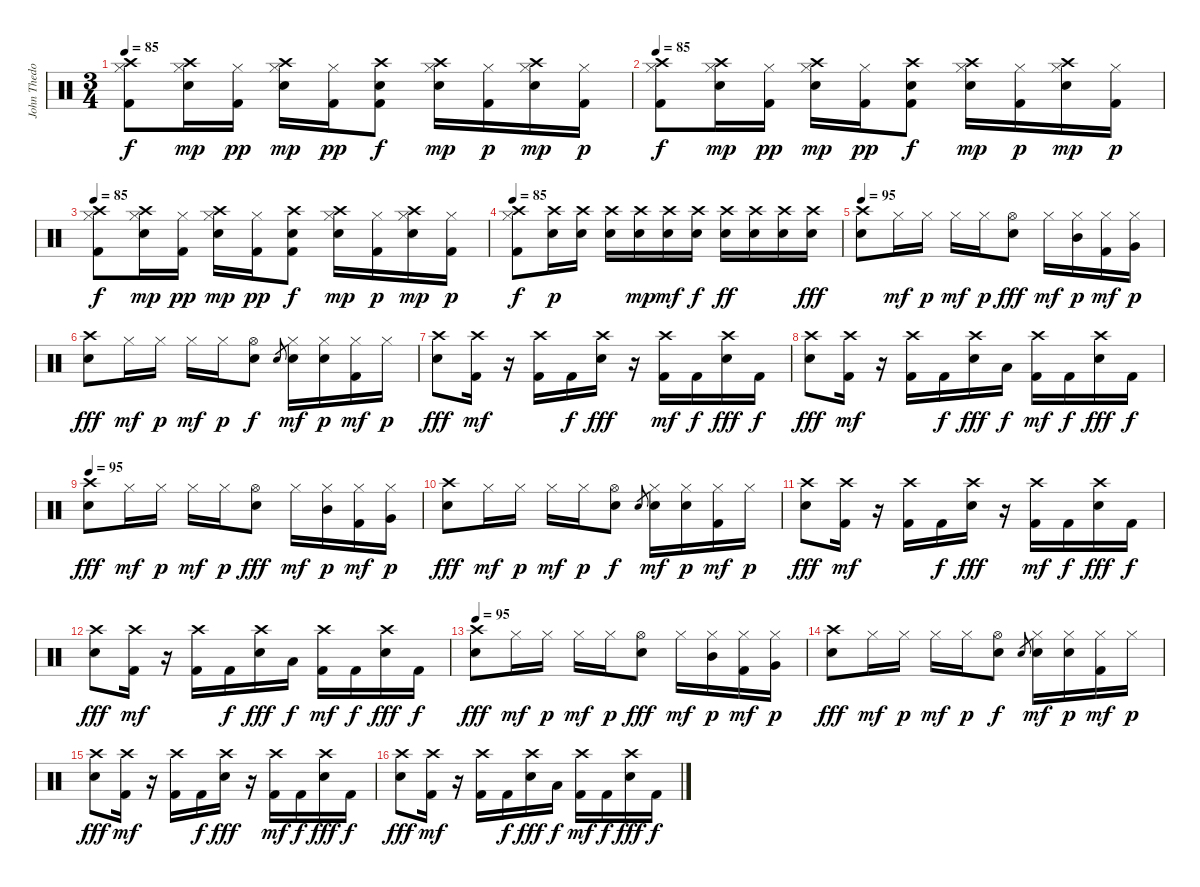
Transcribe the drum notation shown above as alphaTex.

\track ("John Thedore" "John Thedo") {instrument percussion}
\staff {score}
\articulation defaults
\ts (3 4)
\tempo 85
\clef neutral
\ks c
("Crash high (hit)" "Kick (hit) 2" "Hi-Hat (closed)").8{dy f} ("Crash high (hit)" "Hi-Hat (closed)" "Electric Snare (hit)").16{dy mp} ("Hi-Hat (closed)" "Kick (hit) 2").16{dy pp} ("Crash high (hit)" "Hi-Hat (closed)" "Electric Snare (hit)").16{dy mp} ("Hi-Hat (closed)" "Kick (hit) 2").16{dy pp} ("Crash high (hit)" "Electric Snare (hit)" "Kick (hit) 2").8{dy f} ("Crash high (hit)" "Hi-Hat (closed)" "Electric Snare (hit)").16{dy mp} ("Hi-Hat (closed)" "Kick (hit) 2").16{dy p} ("Crash high (hit)" "Hi-Hat (closed)" "Electric Snare (hit)").16{dy mp} ("Hi-Hat (closed)" "Kick (hit) 2").16{dy p} |
\tempo 85
("Crash high (hit)" "Kick (hit) 2" "Hi-Hat (closed)").8{dy f} ("Crash high (hit)" "Hi-Hat (closed)" "Electric Snare (hit)").16{dy mp} ("Hi-Hat (closed)" "Kick (hit) 2").16{dy pp} ("Crash high (hit)" "Hi-Hat (closed)" "Electric Snare (hit)").16{dy mp} ("Hi-Hat (closed)" "Kick (hit) 2").16{dy pp} ("Crash high (hit)" "Electric Snare (hit)" "Kick (hit) 2").8{dy f} ("Crash high (hit)" "Hi-Hat (closed)" "Electric Snare (hit)").16{dy mp} ("Hi-Hat (closed)" "Kick (hit) 2").16{dy p} ("Crash high (hit)" "Hi-Hat (closed)" "Electric Snare (hit)").16{dy mp} ("Hi-Hat (closed)" "Kick (hit) 2").16{dy p} |
\tempo 85
("Crash high (hit)" "Kick (hit) 2" "Hi-Hat (closed)").8{dy f} ("Crash high (hit)" "Hi-Hat (closed)" "Electric Snare (hit)").16{dy mp} ("Hi-Hat (closed)" "Kick (hit) 2").16{dy pp} ("Crash high (hit)" "Hi-Hat (closed)" "Electric Snare (hit)").16{dy mp} ("Hi-Hat (closed)" "Kick (hit) 2").16{dy pp} ("Crash high (hit)" "Electric Snare (hit)" "Kick (hit) 2").8{dy f} ("Crash high (hit)" "Hi-Hat (closed)" "Electric Snare (hit)").16{dy mp} ("Hi-Hat (closed)" "Kick (hit) 2").16{dy p} ("Crash high (hit)" "Hi-Hat (closed)" "Electric Snare (hit)").16{dy mp} ("Hi-Hat (closed)" "Kick (hit) 2").16{dy p} |
\tempo 85
("Crash high (hit)" "Kick (hit) 2" "Hi-Hat (closed)").8{dy f} ("Crash high (hit)" "Electric Snare (hit)").16{dy p} ("Crash high (hit)" "Electric Snare (hit)").16 ("Crash high (hit)" "Electric Snare (hit)").16 ("Crash high (hit)" "Electric Snare (hit)").16{dy mp} ("Crash high (hit)" "Electric Snare (hit)").16{dy mf} ("Crash high (hit)" "Electric Snare (hit)").16{dy f} ("Crash high (hit)" "Electric Snare (hit)").16{dy ff} ("Crash high (hit)" "Electric Snare (hit)").16 ("Crash high (hit)" "Electric Snare (hit)").16 ("Crash high (hit)" "Electric Snare (hit)").16{dy fff} |
\tempo 95
("Crash high (hit)" "Electric Snare (hit)").8 "Hi-Hat (closed)".16{dy mf} "Hi-Hat (closed)".16{dy p} "Hi-Hat (closed)".16{dy mf} "Hi-Hat (closed)".16{dy p} ("Hi-Hat (open)" "Electric Snare (hit)").8{dy fff} "Hi-Hat (closed)".16{dy mf} ("Hi-Hat (closed)" "Mid Tom (hit)").16{dy p} ("Hi-Hat (closed)" "Kick (hit) 2").16{dy mf} ("Hi-Hat (closed)" "Very Low Tom (hit)").16{dy p} |
("Crash high (hit)" "Electric Snare (hit)").8{dy fff} "Hi-Hat (closed)".16{dy mf} "Hi-Hat (closed)".16{dy p} "Hi-Hat (closed)".16{dy mf} "Hi-Hat (closed)".16{dy p} ("Hi-Hat (open)" "Electric Snare (hit)").8{dy f} "Electric Snare (hit)".8{gr} ("Hi-Hat (closed)" "Electric Snare (hit)").16{dy mf} ("Hi-Hat (closed)" "Electric Snare (hit)").16{dy p} ("Hi-Hat (closed)" "Kick (hit) 2").16{dy mf} "Hi-Hat (closed)".16{dy p} |
("Crash high (hit)" "Electric Snare (hit)").8{dy fff} ("Crash high (hit)" "Kick (hit) 2").16{dy mf} r.16 ("Crash high (hit)" "Kick (hit) 2").16 "Kick (hit) 2".16{dy f} ("Crash high (hit)" "Electric Snare (hit)").16{dy fff} r.16 ("Crash high (hit)" "Kick (hit) 2").16{dy mf} "Kick (hit) 2".16{dy f} ("Crash high (hit)" "Electric Snare (hit)").16{dy fff} "Kick (hit) 2".16{dy f} |
("Crash high (hit)" "Electric Snare (hit)").8{dy fff} ("Crash high (hit)" "Kick (hit) 2").16{dy mf} r.16 ("Crash high (hit)" "Kick (hit) 2").16 "Kick (hit) 2".16{dy f} ("Crash high (hit)" "Electric Snare (hit)").16{dy fff} "Low Tom (hit)".16{dy f} ("Crash high (hit)" "Kick (hit) 2").16{dy mf} "Kick (hit) 2".16{dy f} ("Crash high (hit)" "Electric Snare (hit)").16{dy fff} "Kick (hit) 2".16{dy f} |
\tempo 95
("Crash high (hit)" "Electric Snare (hit)").8{dy fff} "Hi-Hat (closed)".16{dy mf} "Hi-Hat (closed)".16{dy p} "Hi-Hat (closed)".16{dy mf} "Hi-Hat (closed)".16{dy p} ("Hi-Hat (open)" "Electric Snare (hit)").8{dy fff} "Hi-Hat (closed)".16{dy mf} ("Hi-Hat (closed)" "Mid Tom (hit)").16{dy p} ("Hi-Hat (closed)" "Kick (hit) 2").16{dy mf} ("Hi-Hat (closed)" "Very Low Tom (hit)").16{dy p} |
("Crash high (hit)" "Electric Snare (hit)").8{dy fff} "Hi-Hat (closed)".16{dy mf} "Hi-Hat (closed)".16{dy p} "Hi-Hat (closed)".16{dy mf} "Hi-Hat (closed)".16{dy p} ("Hi-Hat (open)" "Electric Snare (hit)").8{dy f} "Electric Snare (hit)".8{gr} ("Hi-Hat (closed)" "Electric Snare (hit)").16{dy mf} ("Hi-Hat (closed)" "Electric Snare (hit)").16{dy p} ("Hi-Hat (closed)" "Kick (hit) 2").16{dy mf} "Hi-Hat (closed)".16{dy p} |
("Crash high (hit)" "Electric Snare (hit)").8{dy fff} ("Crash high (hit)" "Kick (hit) 2").16{dy mf} r.16 ("Crash high (hit)" "Kick (hit) 2").16 "Kick (hit) 2".16{dy f} ("Crash high (hit)" "Electric Snare (hit)").16{dy fff} r.16 ("Crash high (hit)" "Kick (hit) 2").16{dy mf} "Kick (hit) 2".16{dy f} ("Crash high (hit)" "Electric Snare (hit)").16{dy fff} "Kick (hit) 2".16{dy f} |
("Crash high (hit)" "Electric Snare (hit)").8{dy fff} ("Crash high (hit)" "Kick (hit) 2").16{dy mf} r.16 ("Crash high (hit)" "Kick (hit) 2").16 "Kick (hit) 2".16{dy f} ("Crash high (hit)" "Electric Snare (hit)").16{dy fff} "Low Tom (hit)".16{dy f} ("Crash high (hit)" "Kick (hit) 2").16{dy mf} "Kick (hit) 2".16{dy f} ("Crash high (hit)" "Electric Snare (hit)").16{dy fff} "Kick (hit) 2".16{dy f} |
\tempo 95
("Crash high (hit)" "Electric Snare (hit)").8{dy fff} "Hi-Hat (closed)".16{dy mf} "Hi-Hat (closed)".16{dy p} "Hi-Hat (closed)".16{dy mf} "Hi-Hat (closed)".16{dy p} ("Hi-Hat (open)" "Electric Snare (hit)").8{dy fff} "Hi-Hat (closed)".16{dy mf} ("Hi-Hat (closed)" "Mid Tom (hit)").16{dy p} ("Hi-Hat (closed)" "Kick (hit) 2").16{dy mf} ("Hi-Hat (closed)" "Very Low Tom (hit)").16{dy p} |
("Crash high (hit)" "Electric Snare (hit)").8{dy fff} "Hi-Hat (closed)".16{dy mf} "Hi-Hat (closed)".16{dy p} "Hi-Hat (closed)".16{dy mf} "Hi-Hat (closed)".16{dy p} ("Hi-Hat (open)" "Electric Snare (hit)").8{dy f} "Electric Snare (hit)".8{gr} ("Hi-Hat (closed)" "Electric Snare (hit)").16{dy mf} ("Hi-Hat (closed)" "Electric Snare (hit)").16{dy p} ("Hi-Hat (closed)" "Kick (hit) 2").16{dy mf} "Hi-Hat (closed)".16{dy p} |
("Crash high (hit)" "Electric Snare (hit)").8{dy fff} ("Crash high (hit)" "Kick (hit) 2").16{dy mf} r.16 ("Crash high (hit)" "Kick (hit) 2").16 "Kick (hit) 2".16{dy f} ("Crash high (hit)" "Electric Snare (hit)").16{dy fff} r.16 ("Crash high (hit)" "Kick (hit) 2").16{dy mf} "Kick (hit) 2".16{dy f} ("Crash high (hit)" "Electric Snare (hit)").16{dy fff} "Kick (hit) 2".16{dy f} |
("Crash high (hit)" "Electric Snare (hit)").8{dy fff} ("Crash high (hit)" "Kick (hit) 2").16{dy mf} r.16 ("Crash high (hit)" "Kick (hit) 2").16 "Kick (hit) 2".16{dy f} ("Crash high (hit)" "Electric Snare (hit)").16{dy fff} "Low Tom (hit)".16{dy f} ("Crash high (hit)" "Kick (hit) 2").16{dy mf} "Kick (hit) 2".16{dy f} ("Crash high (hit)" "Electric Snare (hit)").16{dy fff} "Kick (hit) 2".16{dy f}
